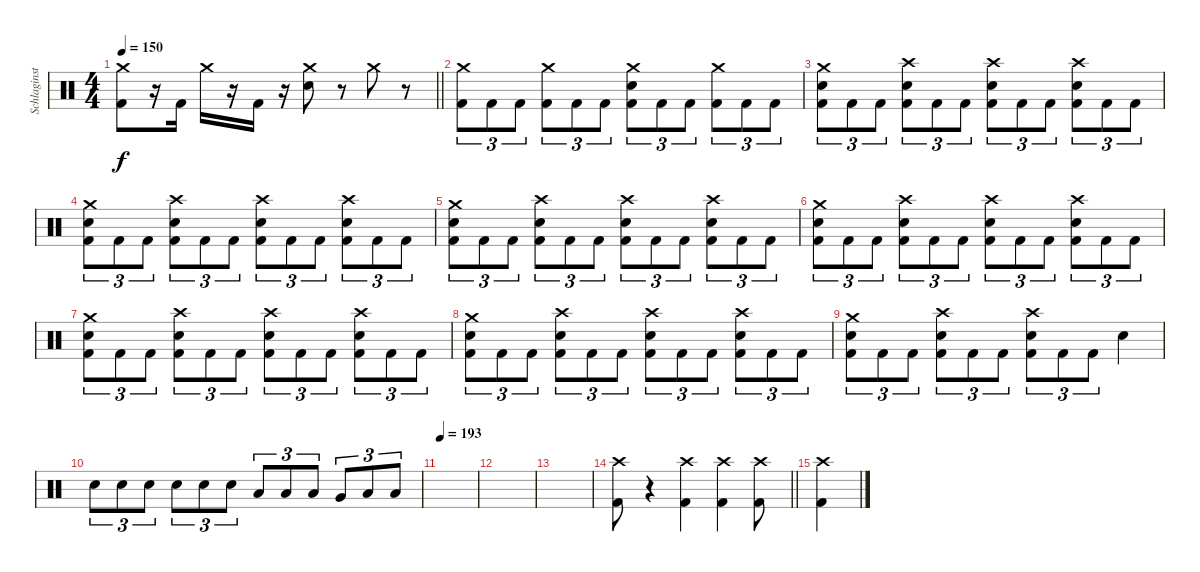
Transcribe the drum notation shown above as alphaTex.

\track ("Schlaginstrumente - Auswahl" "Schlaginst") {instrument percussion}
\staff {score}
\articulation defaults
\ts (4 4)
\tempo 150
\clef neutral
\barLineRight lightlight
\ks c
("Crash medium (hit)" "Kick (hit) 2").8{dy f} r.16 "Kick (hit) 2".16 "Crash medium (hit)".16 r.16 "Kick (hit) 2".16 r.16 ("Crash medium (hit)" "Electric Snare (hit)").8 r.8 "Crash medium (hit)".8 r.8 |
("Crash medium (hit)" "Kick (hit) 2").8{tu (3 2)} "Kick (hit) 2".8{tu (3 2)} "Kick (hit) 2".8{tu (3 2)} ("Crash medium (hit)" "Kick (hit) 2").8{tu (3 2)} "Kick (hit) 2".8{tu (3 2)} "Kick (hit) 2".8{tu (3 2)} ("Crash medium (hit)" "Electric Snare (hit)" "Kick (hit) 2").8{tu (3 2)} "Kick (hit) 2".8{tu (3 2)} "Kick (hit) 2".8{tu (3 2)} ("Crash medium (hit)" "Kick (hit) 2").8{tu (3 2)} "Kick (hit) 2".8{tu (3 2)} "Kick (hit) 2".8{tu (3 2)} |
("Crash medium (hit)" "Electric Snare (hit)" "Kick (hit) 2").8{tu (3 2)} "Kick (hit) 2".8{tu (3 2)} "Kick (hit) 2".8{tu (3 2)} ("Crash high (hit)" "Electric Snare (hit)" "Kick (hit) 2").8{tu (3 2)} "Kick (hit) 2".8{tu (3 2)} "Kick (hit) 2".8{tu (3 2)} ("Crash high (hit)" "Electric Snare (hit)" "Kick (hit) 2").8{tu (3 2)} "Kick (hit) 2".8{tu (3 2)} "Kick (hit) 2".8{tu (3 2)} ("Crash high (hit)" "Electric Snare (hit)" "Kick (hit) 2").8{tu (3 2)} "Kick (hit) 2".8{tu (3 2)} "Kick (hit) 2".8{tu (3 2)} |
("Crash medium (hit)" "Electric Snare (hit)" "Kick (hit) 2").8{tu (3 2)} "Kick (hit) 2".8{tu (3 2)} "Kick (hit) 2".8{tu (3 2)} ("Crash high (hit)" "Electric Snare (hit)" "Kick (hit) 2").8{tu (3 2)} "Kick (hit) 2".8{tu (3 2)} "Kick (hit) 2".8{tu (3 2)} ("Crash high (hit)" "Electric Snare (hit)" "Kick (hit) 2").8{tu (3 2)} "Kick (hit) 2".8{tu (3 2)} "Kick (hit) 2".8{tu (3 2)} ("Crash high (hit)" "Electric Snare (hit)" "Kick (hit) 2").8{tu (3 2)} "Kick (hit) 2".8{tu (3 2)} "Kick (hit) 2".8{tu (3 2)} |
("Crash medium (hit)" "Electric Snare (hit)" "Kick (hit) 2").8{tu (3 2)} "Kick (hit) 2".8{tu (3 2)} "Kick (hit) 2".8{tu (3 2)} ("Crash high (hit)" "Electric Snare (hit)" "Kick (hit) 2").8{tu (3 2)} "Kick (hit) 2".8{tu (3 2)} "Kick (hit) 2".8{tu (3 2)} ("Crash high (hit)" "Electric Snare (hit)" "Kick (hit) 2").8{tu (3 2)} "Kick (hit) 2".8{tu (3 2)} "Kick (hit) 2".8{tu (3 2)} ("Crash high (hit)" "Electric Snare (hit)" "Kick (hit) 2").8{tu (3 2)} "Kick (hit) 2".8{tu (3 2)} "Kick (hit) 2".8{tu (3 2)} |
("Crash medium (hit)" "Electric Snare (hit)" "Kick (hit) 2").8{tu (3 2)} "Kick (hit) 2".8{tu (3 2)} "Kick (hit) 2".8{tu (3 2)} ("Crash high (hit)" "Electric Snare (hit)" "Kick (hit) 2").8{tu (3 2)} "Kick (hit) 2".8{tu (3 2)} "Kick (hit) 2".8{tu (3 2)} ("Crash high (hit)" "Electric Snare (hit)" "Kick (hit) 2").8{tu (3 2)} "Kick (hit) 2".8{tu (3 2)} "Kick (hit) 2".8{tu (3 2)} ("Crash high (hit)" "Electric Snare (hit)" "Kick (hit) 2").8{tu (3 2)} "Kick (hit) 2".8{tu (3 2)} "Kick (hit) 2".8{tu (3 2)} |
("Crash medium (hit)" "Electric Snare (hit)" "Kick (hit) 2").8{tu (3 2)} "Kick (hit) 2".8{tu (3 2)} "Kick (hit) 2".8{tu (3 2)} ("Crash high (hit)" "Electric Snare (hit)" "Kick (hit) 2").8{tu (3 2)} "Kick (hit) 2".8{tu (3 2)} "Kick (hit) 2".8{tu (3 2)} ("Crash high (hit)" "Electric Snare (hit)" "Kick (hit) 2").8{tu (3 2)} "Kick (hit) 2".8{tu (3 2)} "Kick (hit) 2".8{tu (3 2)} ("Crash high (hit)" "Electric Snare (hit)" "Kick (hit) 2").8{tu (3 2)} "Kick (hit) 2".8{tu (3 2)} "Kick (hit) 2".8{tu (3 2)} |
("Crash medium (hit)" "Electric Snare (hit)" "Kick (hit) 2").8{tu (3 2)} "Kick (hit) 2".8{tu (3 2)} "Kick (hit) 2".8{tu (3 2)} ("Crash high (hit)" "Electric Snare (hit)" "Kick (hit) 2").8{tu (3 2)} "Kick (hit) 2".8{tu (3 2)} "Kick (hit) 2".8{tu (3 2)} ("Crash high (hit)" "Electric Snare (hit)" "Kick (hit) 2").8{tu (3 2)} "Kick (hit) 2".8{tu (3 2)} "Kick (hit) 2".8{tu (3 2)} ("Crash high (hit)" "Electric Snare (hit)" "Kick (hit) 2").8{tu (3 2)} "Kick (hit) 2".8{tu (3 2)} "Kick (hit) 2".8{tu (3 2)} |
("Crash medium (hit)" "Electric Snare (hit)" "Kick (hit) 2").8{tu (3 2)} "Kick (hit) 2".8{tu (3 2)} "Kick (hit) 2".8{tu (3 2)} ("Crash high (hit)" "Electric Snare (hit)" "Kick (hit) 2").8{tu (3 2)} "Kick (hit) 2".8{tu (3 2)} "Kick (hit) 2".8{tu (3 2)} ("Crash high (hit)" "Electric Snare (hit)" "Kick (hit) 2").8{tu (3 2)} "Kick (hit) 2".8{tu (3 2)} "Kick (hit) 2".8{tu (3 2)} "Electric Snare (hit)".4 |
"Electric Snare (hit)".8{tu (3 2)} "Electric Snare (hit)".8{tu (3 2)} "Electric Snare (hit)".8{tu (3 2)} "Electric Snare (hit)".8{tu (3 2)} "Electric Snare (hit)".8{tu (3 2)} "Electric Snare (hit)".8{tu (3 2)} "Low Tom (hit)".8{tu (3 2)} "Low Tom (hit)".8{tu (3 2)} "Low Tom (hit)".8{tu (3 2)} "Very Low Tom (hit)".8{tu (3 2)} "Low Floor Tom (hit)".8{tu (3 2)} "Low Floor Tom (hit)".8{tu (3 2)} |
\tempo 193
|
|
|
\barLineRight lightlight
("Crash high (hit)" "Kick (hit) 2").8 r.4 ("Crash high (hit)" "Kick (hit) 2").4 ("Crash high (hit)" "Kick (hit) 2").4 ("Crash high (hit)" "Kick (hit) 2").8 |
("Crash high (hit)" "Kick (hit) 2").4
